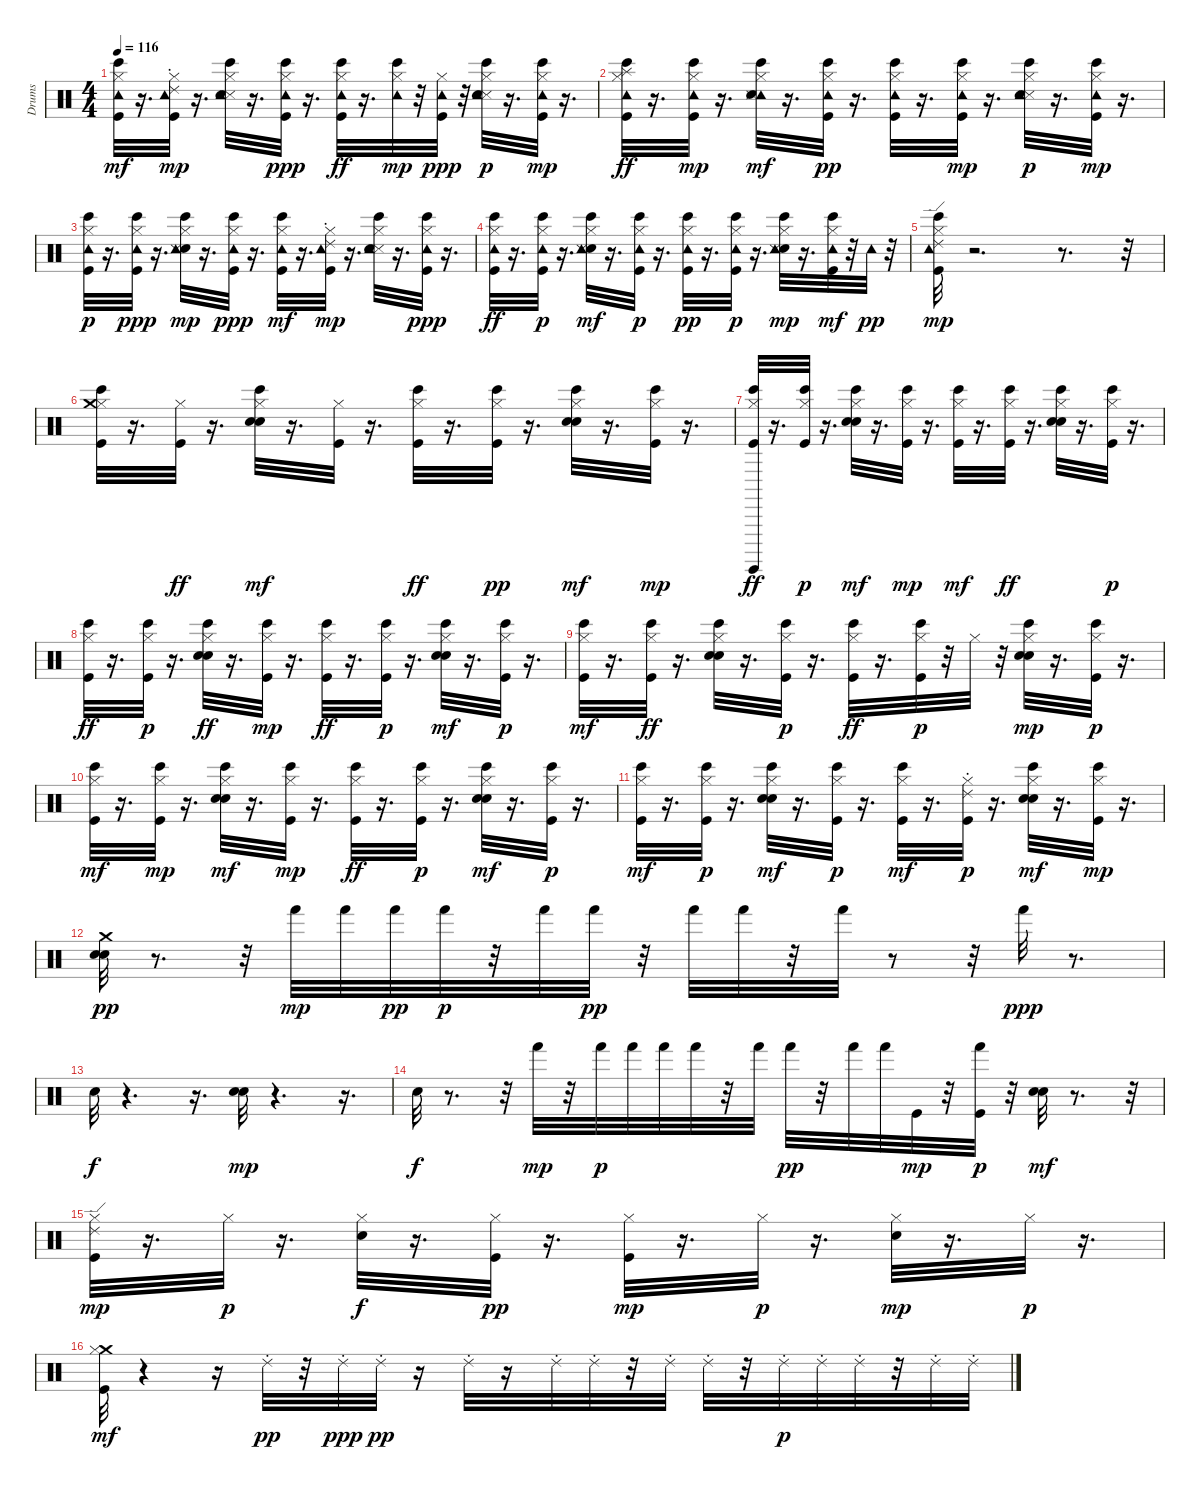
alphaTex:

\track ("Drums" "Drums") {instrument percussion}
\staff {score}
\articulation defaults
\ts (4 4)
\tempo 116
\clef neutral
\ks c
("Tambourine (hit)" "Bongo High (hit)" "Kick (hit)" "Hi-Hat (closed)").32{dy mf} r.16{d} ("Kick (hit)" "Hi-Hat (closed)" "Tambourine (hit)" "Ride (choke) 2").32{dy mp} r.16{d} ("Snare (side stick) 3" "Bongo High (hit)" "Tambourine (hit)" "Snare (hit) 2" "Hi-Hat (closed)").32 r.16{d} ("Hi-Hat (closed)" "Bongo High (hit)" "Tambourine (hit)" "Kick (hit)").32{dy ppp} r.16{d} ("Tambourine (hit)" "Hi-Hat (closed)" "Bongo High (hit)" "Kick (hit)").32{dy ff} r.16{d} ("Tambourine (hit)" "Bongo High (hit)" "Hi-Hat (closed)").32{dy mp} r.32 ("Kick (hit)" "Hi-Hat (closed)" "Tambourine (hit)").32{dy ppp} r.32 ("Snare (side stick) 3" "Bongo High (hit)" "Hi-Hat (closed)" "Snare (hit) 2" "Tambourine (hit)").32{dy p} r.16{d} ("Bongo High (hit)" "Tambourine (hit)" "Kick (hit)" "Hi-Hat (closed)").32{dy mp} r.16{d} |
("Tambourine (hit)" "Splash (hit)" "Hi-Hat (closed)" "Kick (hit)" "Bongo High (hit)").32{dy ff} r.16{d} ("Hi-Hat (closed)" "Kick (hit)" "Tambourine (hit)" "Bongo High (hit)").32{dy mp} r.16{d} ("Tambourine (hit)" "Bongo High (hit)" "Hi-Hat (closed)" "Snare (hit) 2" "Snare (side stick) 3").32{dy mf} r.16{d} ("Kick (hit)" "Bongo High (hit)" "Hi-Hat (closed)" "Tambourine (hit)").32{dy pp} r.16{d} ("Kick (hit)" "Hi-Hat (closed)" "Bongo High (hit)" "Tambourine (hit)").32 r.16{d} ("Kick (hit)" "Hi-Hat (closed)" "Tambourine (hit)" "Bongo High (hit)").32{dy mp} r.16{d} ("Snare (side stick) 3" "Bongo High (hit)" "Snare (hit) 2" "Hi-Hat (closed)" "Tambourine (hit)").32{dy p} r.16{d} ("Tambourine (hit)" "Bongo High (hit)" "Kick (hit)" "Hi-Hat (closed)").32{dy mp} r.16{d} |
("Kick (hit)" "Hi-Hat (closed)" "Bongo High (hit)" "Tambourine (hit)").32{dy p} r.16{d} ("Kick (hit)" "Hi-Hat (closed)" "Bongo High (hit)" "Tambourine (hit)").32{dy ppp} r.16{d} ("Snare (hit) 2" "Snare (side stick) 3" "Hi-Hat (closed)" "Tambourine (hit)" "Bongo High (hit)").32{dy mp} r.16{d} ("Kick (hit)" "Hi-Hat (closed)" "Bongo High (hit)" "Tambourine (hit)").32{dy ppp} r.16{d} ("Bongo High (hit)" "Kick (hit)" "Tambourine (hit)" "Hi-Hat (closed)").32{dy mf} r.16{d} ("Tambourine (hit)" "Ride (choke) 2" "Kick (hit)" "Hi-Hat (closed)").32{dy mp} r.16{d} ("Hi-Hat (closed)" "Snare (side stick) 3" "Snare (hit) 2" "Bongo High (hit)" "Tambourine (hit)").32 r.16{d} ("Kick (hit)" "Hi-Hat (closed)" "Bongo High (hit)" "Tambourine (hit)").32{dy ppp} r.16{d} |
("Tambourine (hit)" "Bongo High (hit)" "Hi-Hat (closed)" "Kick (hit)").32{dy ff} r.16{d} ("Kick (hit)" "Hi-Hat (closed)" "Tambourine (hit)" "Bongo High (hit)").32{dy p} r.16{d} ("Snare (hit) 2" "Tambourine (hit)" "Snare (side stick) 3" "Bongo High (hit)" "Hi-Hat (closed)").32{dy mf} r.16{d} ("Hi-Hat (closed)" "Kick (hit)" "Tambourine (hit)" "Bongo High (hit)").32{dy p} r.16{d} ("Kick (hit)" "Hi-Hat (closed)" "Bongo High (hit)" "Tambourine (hit)").32{dy pp} r.16{d} ("Tambourine (hit)" "Kick (hit)" "Hi-Hat (closed)" "Bongo High (hit)").32{dy p} r.16{d} ("Snare (hit) 2" "Snare (side stick) 3" "Hi-Hat (closed)" "Bongo High (hit)" "Tambourine (hit)").32{dy mp} r.16{d} ("Tambourine (hit)" "Bongo High (hit)" "Hi-Hat (closed)" "Kick (hit)").32{dy mf} r.32 "Tambourine (hit)".32{dy pp} r.32 |
("Kick (hit)" "Bongo High (hit)" "Ride (edge) 2" "Tambourine (hit)" "Hi-Hat (closed)").32{dy mp} r.2{d} r.8{d} r.32 |
("Kick (hit)" "Hi-Hat (closed)" "Bongo High (hit)" "Crash medium (hit)").32 r.16{d} ("Hi-Hat (closed)" "Kick (hit)").32{dy ff} r.16{d} ("Snare (hit) 2" "Hi-Hat (closed)" "Electric Snare (hit)" "Bongo High (hit)").32{dy mf} r.16{d} ("Hi-Hat (closed)" "Kick (hit)").32 r.16{d} ("Bongo High (hit)" "Hi-Hat (closed)" "Kick (hit)").32{dy ff} r.16{d} ("Kick (hit)" "Hi-Hat (closed)" "Bongo High (hit)").32{dy pp} r.16{d} ("Bongo High (hit)" "Hi-Hat (closed)" "Electric Snare (hit)" "Snare (hit) 2").32{dy mf} r.16{d} ("Bongo High (hit)" "Hi-Hat (closed)" "Kick (hit)").32{dy mp} r.16{d} |
("Kick (hit)" "Surdo (hit)" "Hi-Hat (closed)" "Bongo High (hit)").32{dy ff} r.16{d} ("Hi-Hat (closed)" "Kick (hit)" "Bongo High (hit)").32{dy p} r.16{d} ("Electric Snare (hit)" "Bongo High (hit)" "Snare (hit) 2" "Hi-Hat (closed)").32{dy mf} r.16{d} ("Bongo High (hit)" "Hi-Hat (closed)" "Kick (hit)").32{dy mp} r.16{d} ("Kick (hit)" "Hi-Hat (closed)" "Bongo High (hit)").32{dy mf} r.16{d} ("Bongo High (hit)" "Hi-Hat (closed)" "Kick (hit)").32{dy ff} r.16{d} ("Electric Snare (hit)" "Snare (hit) 2" "Hi-Hat (closed)" "Bongo High (hit)").32 r.16{d} ("Kick (hit)" "Hi-Hat (closed)" "Bongo High (hit)").32{dy p} r.16{d} |
("Kick (hit)" "Hi-Hat (closed)" "Bongo High (hit)").32{dy ff} r.16{d} ("Kick (hit)" "Bongo High (hit)" "Hi-Hat (closed)").32{dy p} r.16{d} ("Electric Snare (hit)" "Snare (hit) 2" "Hi-Hat (closed)" "Bongo High (hit)").32{dy ff} r.16{d} ("Bongo High (hit)" "Hi-Hat (closed)" "Kick (hit)").32{dy mp} r.16{d} ("Kick (hit)" "Hi-Hat (closed)" "Bongo High (hit)").32{dy ff} r.16{d} ("Kick (hit)" "Hi-Hat (closed)" "Bongo High (hit)").32{dy p} r.16{d} ("Bongo High (hit)" "Electric Snare (hit)" "Snare (hit) 2" "Hi-Hat (closed)").32{dy mf} r.16{d} ("Hi-Hat (closed)" "Kick (hit)" "Bongo High (hit)").32{dy p} r.16{d} |
("Kick (hit)" "Hi-Hat (closed)" "Bongo High (hit)").32{dy mf} r.16{d} ("Bongo High (hit)" "Hi-Hat (closed)" "Kick (hit)").32{dy ff} r.16{d} ("Snare (hit) 2" "Electric Snare (hit)" "Hi-Hat (closed)" "Bongo High (hit)").32 r.16{d} ("Hi-Hat (closed)" "Kick (hit)" "Bongo High (hit)").32{dy p} r.16{d} ("Kick (hit)" "Hi-Hat (closed)" "Bongo High (hit)").32{dy ff} r.16{d} ("Kick (hit)" "Hi-Hat (closed)" "Bongo High (hit)").32{dy p} r.32 "Hi-Hat (closed)".32 r.32 ("Snare (hit) 2" "Electric Snare (hit)" "Bongo High (hit)" "Hi-Hat (closed)").32{dy mp} r.16{d} ("Kick (hit)" "Hi-Hat (closed)" "Bongo High (hit)").32{dy p} r.16{d} |
("Kick (hit)" "Hi-Hat (closed)" "Bongo High (hit)").32{dy mf} r.16{d} ("Bongo High (hit)" "Hi-Hat (closed)" "Kick (hit)").32{dy mp} r.16{d} ("Bongo High (hit)" "Snare (hit) 2" "Electric Snare (hit)" "Hi-Hat (closed)").32{dy mf} r.16{d} ("Kick (hit)" "Bongo High (hit)" "Hi-Hat (closed)").32{dy mp} r.16{d} ("Bongo High (hit)" "Hi-Hat (closed)" "Kick (hit)").32{dy ff} r.16{d} ("Kick (hit)" "Hi-Hat (closed)" "Bongo High (hit)").32{dy p} r.16{d} ("Electric Snare (hit)" "Snare (hit) 2" "Hi-Hat (closed)" "Bongo High (hit)").32{dy mf} r.16{d} ("Hi-Hat (closed)" "Kick (hit)" "Bongo High (hit)").32{dy p} r.16{d} |
("Kick (hit)" "Hi-Hat (closed)" "Bongo High (hit)").32{dy mf} r.16{d} ("Kick (hit)" "Hi-Hat (closed)" "Bongo High (hit)").32{dy p} r.16{d} ("Snare (hit) 2" "Bongo High (hit)" "Hi-Hat (closed)" "Electric Snare (hit)").32{dy mf} r.16{d} ("Kick (hit)" "Hi-Hat (closed)" "Bongo High (hit)").32{dy p} r.16{d} ("Bongo High (hit)" "Hi-Hat (closed)" "Kick (hit)").32{dy mf} r.16{d} ("Kick (hit)" "Hi-Hat (closed)" "Ride (choke) 2").32{dy p} r.16{d} ("Electric Snare (hit)" "Snare (hit) 2" "Hi-Hat (closed)" "Bongo High (hit)").32{dy mf} r.16{d} ("Bongo High (hit)" "Hi-Hat (closed)" "Kick (hit)").32{dy mp} r.16{d} |
("Electric Snare (hit)" "Snare (hit) 2" "Crash medium (hit)").32{dy pp} r.8{d} r.32 "Hand (hit)".32{dy mp} "Hand (hit)".32 "Hand (hit)".32{dy pp} "Hand (hit)".32{dy p} r.32 "Hand (hit)".32 "Hand (hit)".32{dy pp} r.32 "Hand (hit)".32 "Hand (hit)".32 r.32 "Hand (hit)".32 r.8 r.32 "Hand (hit)".32{dy ppp} r.8{d} |
"Electric Snare (hit)".32{dy f} r.4{d} r.16{d} ("Electric Snare (hit)" "Snare (hit) 2").32{dy mp} r.4{d} r.16{d} |
"Electric Snare (hit)".32{dy f} r.8{d} r.32 "Hand (hit)".32{dy mp} r.32 "Hand (hit)".32{dy p} "Hand (hit)".32 "Hand (hit)".32 "Hand (hit)".32 r.32 "Hand (hit)".32 "Hand (hit)".32{dy pp} r.32 "Hand (hit)".32 "Hand (hit)".32 "Kick (hit)".32{dy mp} r.32 ("Hand (hit)" "Kick (hit)").32{dy p} r.32 ("Electric Snare (hit)" "Snare (hit) 2").32{dy mf} r.8{d} r.32 |
("Kick (hit)" "Hi-Hat (closed)" "Ride (edge) 2").32{dy mp} r.16{d} "Hi-Hat (closed)".32{dy p} r.16{d} ("Hi-Hat (closed)" "Electric Snare (hit)").32{dy f} r.16{d} ("Kick (hit)" "Hi-Hat (closed)").32{dy pp} r.16{d} ("Kick (hit)" "Hi-Hat (closed)").32{dy mp} r.16{d} "Hi-Hat (closed)".32{dy p} r.16{d} ("Hi-Hat (closed)" "Electric Snare (hit)").32{dy mp} r.16{d} "Hi-Hat (closed)".32{dy p} r.16{d} |
("Crash medium (hit)" "Hi-Hat (closed)" "Kick (hit)").32{dy mf} r.4 r.16 "Ride (choke) 2".32{dy pp} r.32 "Ride (choke) 2".32{dy ppp} "Ride (choke) 2".32{dy pp} r.16 "Ride (choke) 2".32 r.16 "Ride (choke) 2".32 "Ride (choke) 2".32 r.32 "Ride (choke) 2".32 "Ride (choke) 2".32 r.32 "Ride (choke) 2".32{dy p} "Ride (choke) 2".32 "Ride (choke) 2".32 r.32 "Ride (choke) 2".32 "Ride (choke) 2".32
